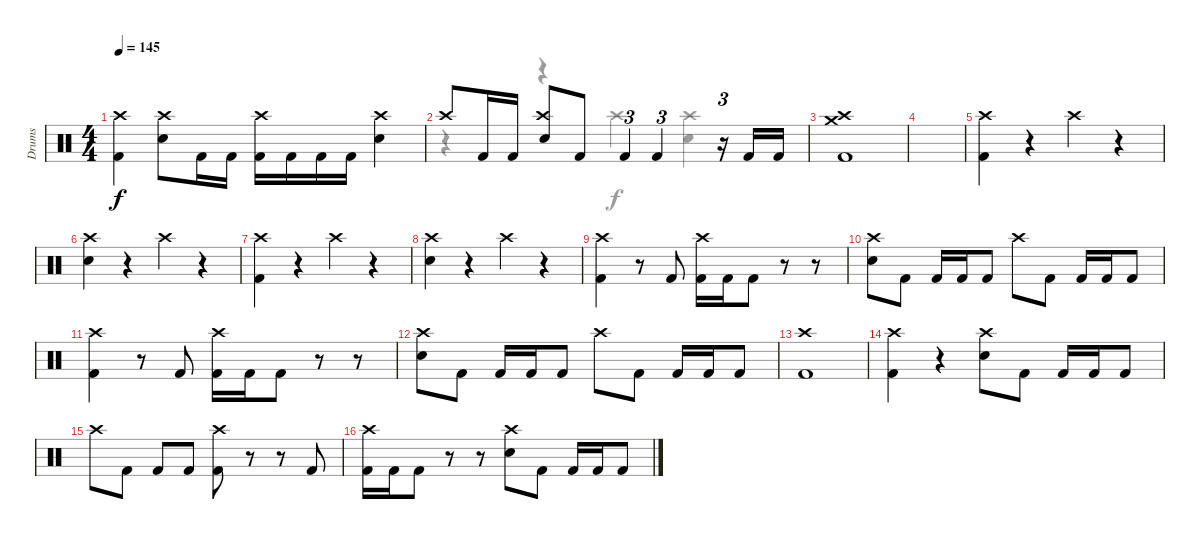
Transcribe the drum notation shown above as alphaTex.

\track ("Drums" "Drums") {instrument percussion}
\staff {score}
\articulation defaults
\voice
\ts (4 4)
\tempo 145
\clef neutral
\ks c
("Crash high (hit)" "Kick (hit) 2").4{dy f} ("Crash high (hit)" "Electric Snare (hit)").8 "Kick (hit) 2".16 "Kick (hit) 2".16 ("Crash high (hit)" "Kick (hit) 2").16 "Kick (hit) 2".16 "Kick (hit) 2".16 "Kick (hit) 2".16 ("Crash high (hit)" "Electric Snare (hit)").4 |
"Crash high (hit)".8 "Kick (hit) 2".16 "Kick (hit) 2".16 ("Crash high (hit)" "Electric Snare (hit)").8 "Kick (hit) 2".8 "Kick (hit) 2".4{tu (3 2)} "Kick (hit) 2".4{tu (3 2)} r.16{tu (3 2)} "Kick (hit) 2".16 "Kick (hit) 2".16 |
("Crash high (hit)" "Crash medium (hit)" "Kick (hit) 2").1 |
|
("Crash high (hit)" "Kick (hit) 2").4 r.4 "Crash high (hit)".4 r.4 |
("Crash high (hit)" "Electric Snare (hit)").4 r.4 "Crash high (hit)".4 r.4 |
("Crash high (hit)" "Kick (hit) 2").4 r.4 "Crash high (hit)".4 r.4 |
("Crash high (hit)" "Electric Snare (hit)").4 r.4 "Crash high (hit)".4 r.4 |
("Crash high (hit)" "Kick (hit) 2").4 r.8 "Kick (hit) 2".8 ("Crash high (hit)" "Kick (hit) 2").16 "Kick (hit) 2".16 "Kick (hit) 2".8 r.8 r.8 |
("Crash high (hit)" "Electric Snare (hit)").8 "Kick (hit) 2".8 "Kick (hit) 2".16 "Kick (hit) 2".16 "Kick (hit) 2".8 "Crash high (hit)".8 "Kick (hit) 2".8 "Kick (hit) 2".16 "Kick (hit) 2".16 "Kick (hit) 2".8 |
("Crash high (hit)" "Kick (hit) 2").4 r.8 "Kick (hit) 2".8 ("Crash high (hit)" "Kick (hit) 2").16 "Kick (hit) 2".16 "Kick (hit) 2".8 r.8 r.8 |
("Crash high (hit)" "Electric Snare (hit)").8 "Kick (hit) 2".8 "Kick (hit) 2".16 "Kick (hit) 2".16 "Kick (hit) 2".8 "Crash high (hit)".8 "Kick (hit) 2".8 "Kick (hit) 2".16 "Kick (hit) 2".16 "Kick (hit) 2".8 |
("Crash high (hit)" "Kick (hit) 2").1 |
("Crash high (hit)" "Kick (hit) 2").4 r.4 ("Crash high (hit)" "Electric Snare (hit)").8 "Kick (hit) 2".8 "Kick (hit) 2".16 "Kick (hit) 2".16 "Kick (hit) 2".8 |
"Crash high (hit)".8 "Kick (hit) 2".8 "Kick (hit) 2".8 "Kick (hit) 2".8 ("Crash high (hit)" "Kick (hit) 2").8 r.8 r.8 "Kick (hit) 2".8 |
("Crash high (hit)" "Kick (hit) 2").16 "Kick (hit) 2".16 "Kick (hit) 2".8 r.8 r.8 ("Crash high (hit)" "Electric Snare (hit)").8 "Kick (hit) 2".8 "Kick (hit) 2".16 "Kick (hit) 2".16 "Kick (hit) 2".8
\voice
\clef neutral
\ottava regular
\simile none
\ks c
|
r.4 r.4 "Crash high (hit)".4 ("Crash high (hit)" "Electric Snare (hit)").4 |
|
|
|
|
|
|
|
|
|
|
|
|
|
